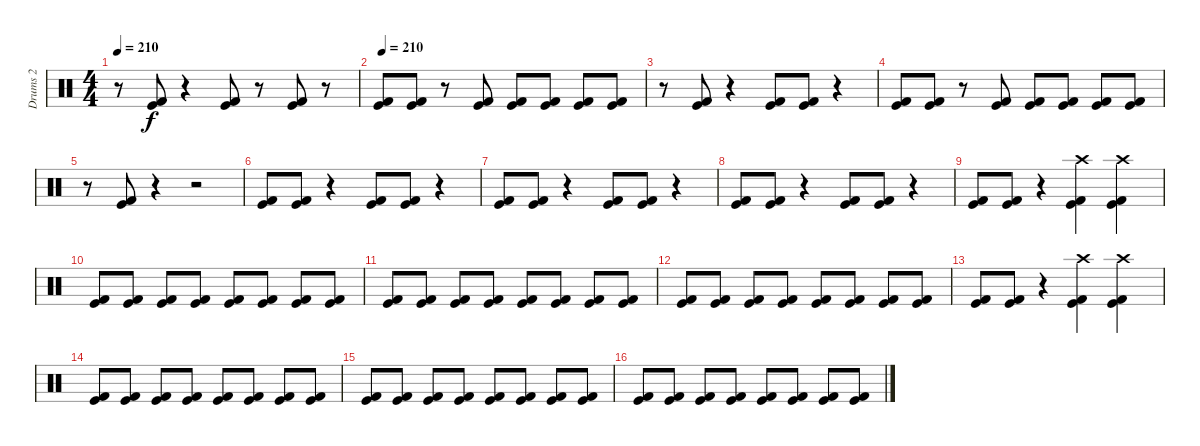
\track ("Drums 2" "Drums 2") {instrument percussion}
\staff {score}
\articulation defaults
\ts (4 4)
\tempo 210
\clef neutral
\ks c
r.8{dy f} ("Kick (hit) 2" "Kick (hit)").8 r.4 ("Kick (hit) 2" "Kick (hit)").8 r.8 ("Kick (hit) 2" "Kick (hit)").8 r.8 |
\tempo 210
("Kick (hit) 2" "Kick (hit)").8 ("Kick (hit) 2" "Kick (hit)").8 r.8 ("Kick (hit) 2" "Kick (hit)").8 ("Kick (hit) 2" "Kick (hit)").8 ("Kick (hit) 2" "Kick (hit)").8 ("Kick (hit) 2" "Kick (hit)").8 ("Kick (hit) 2" "Kick (hit)").8 |
r.8 ("Kick (hit) 2" "Kick (hit)").8 r.4 ("Kick (hit) 2" "Kick (hit)").8 ("Kick (hit) 2" "Kick (hit)").8 r.4 |
("Kick (hit) 2" "Kick (hit)").8 ("Kick (hit) 2" "Kick (hit)").8 r.8 ("Kick (hit) 2" "Kick (hit)").8 ("Kick (hit) 2" "Kick (hit)").8 ("Kick (hit) 2" "Kick (hit)").8 ("Kick (hit) 2" "Kick (hit)").8 ("Kick (hit) 2" "Kick (hit)").8 |
r.8 ("Kick (hit) 2" "Kick (hit)").8 r.4 r.2 |
("Kick (hit) 2" "Kick (hit)").8 ("Kick (hit) 2" "Kick (hit)").8 r.4 ("Kick (hit) 2" "Kick (hit)").8 ("Kick (hit) 2" "Kick (hit)").8 r.4 |
("Kick (hit) 2" "Kick (hit)").8 ("Kick (hit) 2" "Kick (hit)").8 r.4 ("Kick (hit) 2" "Kick (hit)").8 ("Kick (hit) 2" "Kick (hit)").8 r.4 |
("Kick (hit) 2" "Kick (hit)").8 ("Kick (hit) 2" "Kick (hit)").8 r.4 ("Kick (hit) 2" "Kick (hit)").8 ("Kick (hit) 2" "Kick (hit)").8 r.4 |
("Kick (hit) 2" "Kick (hit)").8 ("Kick (hit) 2" "Kick (hit)").8 r.4 ("Kick (hit) 2" "Kick (hit)" "Crash high (hit)").4 ("Kick (hit) 2" "Kick (hit)" "Crash high (hit)").4 |
("Kick (hit) 2" "Kick (hit)").8 ("Kick (hit) 2" "Kick (hit)").8 ("Kick (hit) 2" "Kick (hit)").8 ("Kick (hit) 2" "Kick (hit)").8 ("Kick (hit) 2" "Kick (hit)").8 ("Kick (hit) 2" "Kick (hit)").8 ("Kick (hit) 2" "Kick (hit)").8 ("Kick (hit) 2" "Kick (hit)").8 |
("Kick (hit) 2" "Kick (hit)").8 ("Kick (hit) 2" "Kick (hit)").8 ("Kick (hit) 2" "Kick (hit)").8 ("Kick (hit) 2" "Kick (hit)").8 ("Kick (hit) 2" "Kick (hit)").8 ("Kick (hit) 2" "Kick (hit)").8 ("Kick (hit) 2" "Kick (hit)").8 ("Kick (hit) 2" "Kick (hit)").8 |
("Kick (hit) 2" "Kick (hit)").8 ("Kick (hit) 2" "Kick (hit)").8 ("Kick (hit) 2" "Kick (hit)").8 ("Kick (hit) 2" "Kick (hit)").8 ("Kick (hit) 2" "Kick (hit)").8 ("Kick (hit) 2" "Kick (hit)").8 ("Kick (hit) 2" "Kick (hit)").8 ("Kick (hit) 2" "Kick (hit)").8 |
("Kick (hit) 2" "Kick (hit)").8 ("Kick (hit) 2" "Kick (hit)").8 r.4 ("Kick (hit) 2" "Kick (hit)" "Crash high (hit)").4 ("Kick (hit) 2" "Kick (hit)" "Crash high (hit)").4 |
("Kick (hit) 2" "Kick (hit)").8 ("Kick (hit) 2" "Kick (hit)").8 ("Kick (hit) 2" "Kick (hit)").8 ("Kick (hit) 2" "Kick (hit)").8 ("Kick (hit) 2" "Kick (hit)").8 ("Kick (hit) 2" "Kick (hit)").8 ("Kick (hit) 2" "Kick (hit)").8 ("Kick (hit) 2" "Kick (hit)").8 |
("Kick (hit) 2" "Kick (hit)").8 ("Kick (hit) 2" "Kick (hit)").8 ("Kick (hit) 2" "Kick (hit)").8 ("Kick (hit) 2" "Kick (hit)").8 ("Kick (hit) 2" "Kick (hit)").8 ("Kick (hit) 2" "Kick (hit)").8 ("Kick (hit) 2" "Kick (hit)").8 ("Kick (hit) 2" "Kick (hit)").8 |
("Kick (hit) 2" "Kick (hit)").8 ("Kick (hit) 2" "Kick (hit)").8 ("Kick (hit) 2" "Kick (hit)").8 ("Kick (hit) 2" "Kick (hit)").8 ("Kick (hit) 2" "Kick (hit)").8 ("Kick (hit) 2" "Kick (hit)").8 ("Kick (hit) 2" "Kick (hit)").8 ("Kick (hit) 2" "Kick (hit)").8
